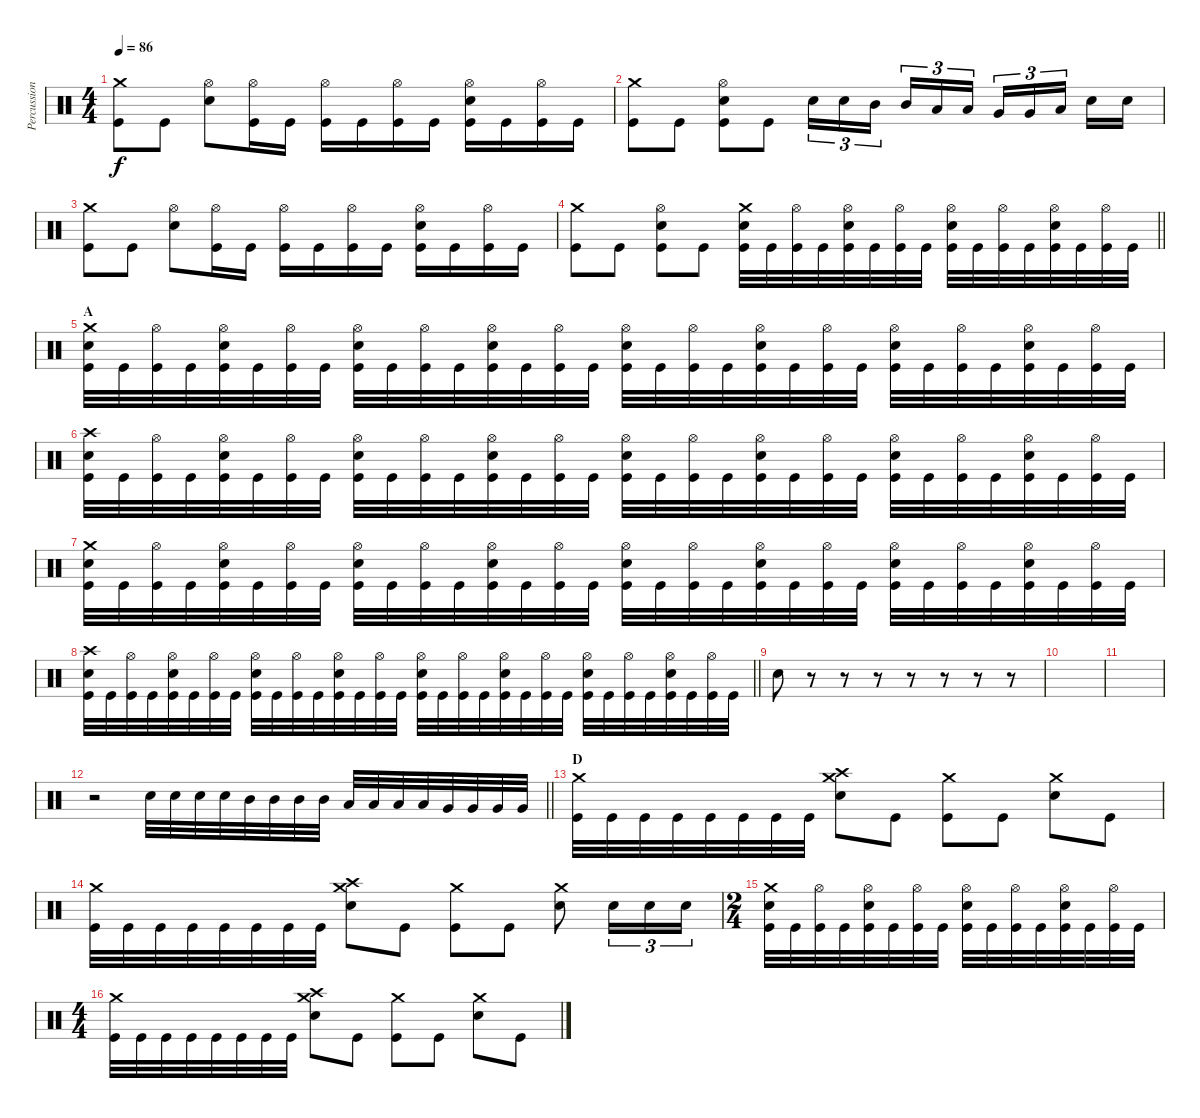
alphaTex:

\track ("Percussion" "Percussion") {instrument percussion}
\staff {score}
\articulation defaults
\ts (4 4)
\tempo 86
\clef neutral
\ks c
("Kick (hit)" "Crash medium (hit)").8{dy f} "Kick (hit)".8 ("Snare (hit) 2" "Hi-Hat (open)").8 ("Kick (hit)" "Hi-Hat (open)").16 "Kick (hit)".16 ("Kick (hit)" "Hi-Hat (open)").16 "Kick (hit)".16 ("Kick (hit)" "Hi-Hat (open)").16 "Kick (hit)".16 ("Kick (hit)" "Snare (hit) 2" "Hi-Hat (open)").16 "Kick (hit)".16 ("Kick (hit)" "Hi-Hat (open)").16 "Kick (hit)".16 |
("Kick (hit)" "Crash medium (hit)").8 "Kick (hit)".8 ("Kick (hit)" "Snare (hit) 2" "Hi-Hat (open)").8 "Kick (hit)".8 "Snare (hit) 2".16{tu (3 2)} "Snare (hit) 2".16{tu (3 2)} "Mid Tom (hit)".16{tu (3 2) beam splitsecondary} "Mid Tom (hit)".16{tu (3 2)} "Low Tom (hit)".16{tu (3 2)} "Low Tom (hit)".16{tu (3 2)} "Very Low Tom (hit)".16{tu (3 2)} "Very Low Tom (hit)".16{tu (3 2)} "Low Floor Tom (hit)".16{tu (3 2) beam splitsecondary} "Snare (hit) 2".16 "Snare (hit) 2".16 |
("Kick (hit)" "Crash medium (hit)").8 "Kick (hit)".8 ("Snare (hit) 2" "Hi-Hat (open)").8 ("Kick (hit)" "Hi-Hat (open)").16 "Kick (hit)".16 ("Kick (hit)" "Hi-Hat (open)").16 "Kick (hit)".16 ("Kick (hit)" "Hi-Hat (open)").16 "Kick (hit)".16 ("Kick (hit)" "Snare (hit) 2" "Hi-Hat (open)").16 "Kick (hit)".16 ("Kick (hit)" "Hi-Hat (open)").16 "Kick (hit)".16 |
\barLineRight lightlight
("Kick (hit)" "Crash medium (hit)").8 "Kick (hit)".8 ("Kick (hit)" "Snare (hit) 2" "Hi-Hat (open)").8 "Kick (hit)".8 ("Kick (hit)" "Snare (hit) 2" "Crash medium (hit)").32 "Kick (hit)".32 ("Kick (hit)" "Hi-Hat (open)").32 "Kick (hit)".32 ("Kick (hit)" "Snare (hit) 2" "Hi-Hat (open)").32 "Kick (hit)".32 ("Kick (hit)" "Hi-Hat (open)").32 "Kick (hit)".32 ("Kick (hit)" "Snare (hit) 2" "Hi-Hat (open)").32 "Kick (hit)".32 ("Kick (hit)" "Hi-Hat (open)").32 "Kick (hit)".32 ("Kick (hit)" "Snare (hit) 2" "Hi-Hat (open)").32 "Kick (hit)".32 ("Kick (hit)" "Hi-Hat (open)").32 "Kick (hit)".32 |
\section ("" "A")
("Kick (hit)" "Snare (hit) 2" "Crash medium (hit)").32 "Kick (hit)".32 ("Kick (hit)" "Hi-Hat (open)").32 "Kick (hit)".32 ("Kick (hit)" "Snare (hit) 2" "Hi-Hat (open)").32 "Kick (hit)".32 ("Kick (hit)" "Hi-Hat (open)").32 "Kick (hit)".32 ("Kick (hit)" "Snare (hit) 2" "Hi-Hat (open)").32 "Kick (hit)".32 ("Kick (hit)" "Hi-Hat (open)").32 "Kick (hit)".32 ("Kick (hit)" "Snare (hit) 2" "Hi-Hat (open)").32 "Kick (hit)".32 ("Kick (hit)" "Hi-Hat (open)").32 "Kick (hit)".32 ("Kick (hit)" "Snare (hit) 2" "Hi-Hat (open)").32 "Kick (hit)".32 ("Kick (hit)" "Hi-Hat (open)").32 "Kick (hit)".32 ("Kick (hit)" "Snare (hit) 2" "Hi-Hat (open)").32 "Kick (hit)".32 ("Kick (hit)" "Hi-Hat (open)").32 "Kick (hit)".32 ("Kick (hit)" "Snare (hit) 2" "Hi-Hat (open)").32 "Kick (hit)".32 ("Kick (hit)" "Hi-Hat (open)").32 "Kick (hit)".32 ("Kick (hit)" "Snare (hit) 2" "Hi-Hat (open)").32 "Kick (hit)".32 ("Kick (hit)" "Hi-Hat (open)").32 "Kick (hit)".32 |
("Kick (hit)" "Snare (hit) 2" "Crash high (hit)").32 "Kick (hit)".32 ("Kick (hit)" "Hi-Hat (open)").32 "Kick (hit)".32 ("Kick (hit)" "Snare (hit) 2" "Hi-Hat (open)").32 "Kick (hit)".32 ("Kick (hit)" "Hi-Hat (open)").32 "Kick (hit)".32 ("Kick (hit)" "Snare (hit) 2" "Hi-Hat (open)").32 "Kick (hit)".32 ("Kick (hit)" "Hi-Hat (open)").32 "Kick (hit)".32 ("Kick (hit)" "Snare (hit) 2" "Hi-Hat (open)").32 "Kick (hit)".32 ("Kick (hit)" "Hi-Hat (open)").32 "Kick (hit)".32 ("Kick (hit)" "Snare (hit) 2" "Hi-Hat (open)").32 "Kick (hit)".32 ("Kick (hit)" "Hi-Hat (open)").32 "Kick (hit)".32 ("Kick (hit)" "Snare (hit) 2" "Hi-Hat (open)").32 "Kick (hit)".32 ("Kick (hit)" "Hi-Hat (open)").32 "Kick (hit)".32 ("Kick (hit)" "Snare (hit) 2" "Hi-Hat (open)").32 "Kick (hit)".32 ("Kick (hit)" "Hi-Hat (open)").32 "Kick (hit)".32 ("Kick (hit)" "Snare (hit) 2" "Hi-Hat (open)").32 "Kick (hit)".32 ("Kick (hit)" "Hi-Hat (open)").32 "Kick (hit)".32 |
("Kick (hit)" "Snare (hit) 2" "Crash medium (hit)").32 "Kick (hit)".32 ("Kick (hit)" "Hi-Hat (open)").32 "Kick (hit)".32 ("Kick (hit)" "Snare (hit) 2" "Hi-Hat (open)").32 "Kick (hit)".32 ("Kick (hit)" "Hi-Hat (open)").32 "Kick (hit)".32 ("Kick (hit)" "Snare (hit) 2" "Hi-Hat (open)").32 "Kick (hit)".32 ("Kick (hit)" "Hi-Hat (open)").32 "Kick (hit)".32 ("Kick (hit)" "Snare (hit) 2" "Hi-Hat (open)").32 "Kick (hit)".32 ("Kick (hit)" "Hi-Hat (open)").32 "Kick (hit)".32 ("Kick (hit)" "Snare (hit) 2" "Hi-Hat (open)").32 "Kick (hit)".32 ("Kick (hit)" "Hi-Hat (open)").32 "Kick (hit)".32 ("Kick (hit)" "Snare (hit) 2" "Hi-Hat (open)").32 "Kick (hit)".32 ("Kick (hit)" "Hi-Hat (open)").32 "Kick (hit)".32 ("Kick (hit)" "Snare (hit) 2" "Hi-Hat (open)").32 "Kick (hit)".32 ("Kick (hit)" "Hi-Hat (open)").32 "Kick (hit)".32 ("Kick (hit)" "Snare (hit) 2" "Hi-Hat (open)").32 "Kick (hit)".32 ("Kick (hit)" "Hi-Hat (open)").32 "Kick (hit)".32 |
\barLineRight lightlight
("Kick (hit)" "Snare (hit) 2" "Crash high (hit)").32 "Kick (hit)".32 ("Kick (hit)" "Hi-Hat (open)").32 "Kick (hit)".32 ("Kick (hit)" "Snare (hit) 2" "Hi-Hat (open)").32 "Kick (hit)".32 ("Kick (hit)" "Hi-Hat (open)").32 "Kick (hit)".32 ("Kick (hit)" "Snare (hit) 2" "Hi-Hat (open)").32 "Kick (hit)".32 ("Kick (hit)" "Hi-Hat (open)").32 "Kick (hit)".32 ("Kick (hit)" "Snare (hit) 2" "Hi-Hat (open)").32 "Kick (hit)".32 ("Kick (hit)" "Hi-Hat (open)").32 "Kick (hit)".32 ("Kick (hit)" "Snare (hit) 2" "Hi-Hat (open)").32 "Kick (hit)".32 ("Kick (hit)" "Hi-Hat (open)").32 "Kick (hit)".32 ("Kick (hit)" "Snare (hit) 2" "Hi-Hat (open)").32 "Kick (hit)".32 ("Kick (hit)" "Hi-Hat (open)").32 "Kick (hit)".32 ("Kick (hit)" "Snare (hit) 2" "Hi-Hat (open)").32 "Kick (hit)".32 ("Kick (hit)" "Hi-Hat (open)").32 "Kick (hit)".32 ("Kick (hit)" "Snare (hit) 2" "Hi-Hat (open)").32 "Kick (hit)".32 ("Kick (hit)" "Hi-Hat (open)").32 "Kick (hit)".32 |
"Snare (hit) 2".8 r.8 r.8 r.8 r.8 r.8 r.8 r.8 |
|
|
\barLineRight lightlight
r.2 "Snare (hit) 2".32 "Snare (hit) 2".32 "Snare (hit) 2".32 "Snare (hit) 2".32 "Mid Tom (hit)".32 "Mid Tom (hit)".32 "Mid Tom (hit)".32 "Mid Tom (hit)".32 "Low Tom (hit)".32 "Low Tom (hit)".32 "Low Tom (hit)".32 "Low Tom (hit)".32 "Very Low Tom (hit)".32 "Very Low Tom (hit)".32 "Very Low Tom (hit)".32 "Very Low Tom (hit)".32 |
\section ("" "D")
("Kick (hit)" "Crash medium (hit)").32 "Kick (hit)".32 "Kick (hit)".32 "Kick (hit)".32 "Kick (hit)".32 "Kick (hit)".32 "Kick (hit)".32 "Kick (hit)".32 ("Snare (hit) 2" "Crash high (hit)" "Crash medium (hit)").8 "Kick (hit)".8 ("Kick (hit)" "Crash medium (hit)").8 "Kick (hit)".8 ("Snare (hit) 2" "Crash medium (hit)").8 "Kick (hit)".8 |
("Kick (hit)" "Crash medium (hit)").32 "Kick (hit)".32 "Kick (hit)".32 "Kick (hit)".32 "Kick (hit)".32 "Kick (hit)".32 "Kick (hit)".32 "Kick (hit)".32 ("Snare (hit) 2" "Crash high (hit)" "Crash medium (hit)").8 "Kick (hit)".8 ("Kick (hit)" "Crash medium (hit)").8 "Kick (hit)".8 ("Snare (hit) 2" "Crash medium (hit)").8 "Snare (hit) 2".16{tu (3 2)} "Snare (hit) 2".16{tu (3 2)} "Snare (hit) 2".16{tu (3 2)} |
\ts (2 4)
("Kick (hit)" "Snare (hit) 2" "Crash medium (hit)").32 "Kick (hit)".32 ("Kick (hit)" "Hi-Hat (open)").32 "Kick (hit)".32 ("Kick (hit)" "Snare (hit) 2" "Hi-Hat (open)").32 "Kick (hit)".32 ("Kick (hit)" "Hi-Hat (open)").32 "Kick (hit)".32 ("Kick (hit)" "Snare (hit) 2" "Hi-Hat (open)").32 "Kick (hit)".32 ("Kick (hit)" "Hi-Hat (open)").32 "Kick (hit)".32 ("Kick (hit)" "Snare (hit) 2" "Hi-Hat (open)").32 "Kick (hit)".32 ("Kick (hit)" "Hi-Hat (open)").32 "Kick (hit)".32 |
\ts (4 4)
("Kick (hit)" "Crash medium (hit)").32 "Kick (hit)".32 "Kick (hit)".32 "Kick (hit)".32 "Kick (hit)".32 "Kick (hit)".32 "Kick (hit)".32 "Kick (hit)".32 ("Snare (hit) 2" "Crash high (hit)" "Crash medium (hit)").8 "Kick (hit)".8 ("Kick (hit)" "Crash medium (hit)").8 "Kick (hit)".8 ("Snare (hit) 2" "Crash medium (hit)").8 "Kick (hit)".8
